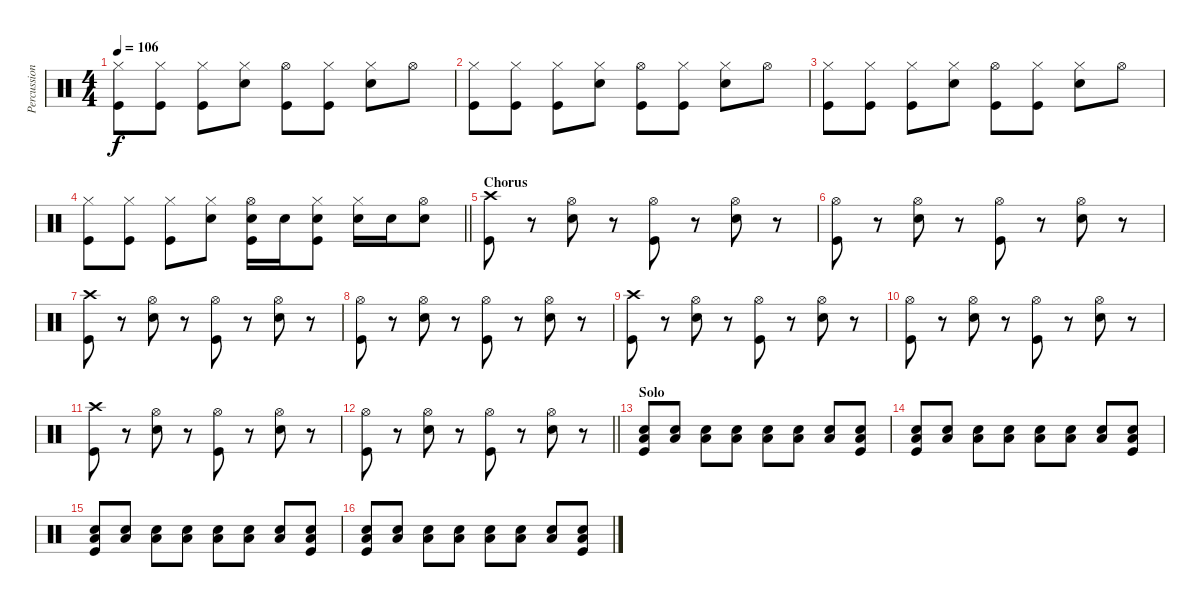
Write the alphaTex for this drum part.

\track ("Percussion" "Percussion") {instrument percussion}
\staff {score}
\articulation defaults
\ts (4 4)
\tempo 106
\clef neutral
\ks c
("Hi-Hat (closed)" "Kick (hit)").8{dy f} ("Hi-Hat (closed)" "Kick (hit)").8 ("Hi-Hat (closed)" "Kick (hit)").8 ("Hi-Hat (closed)" "Snare (hit) 2").8 ("Hi-Hat (open)" "Kick (hit)").8 ("Hi-Hat (closed)" "Kick (hit)").8 ("Hi-Hat (closed)" "Snare (hit) 2").8 "Hi-Hat (open)".8 |
("Hi-Hat (closed)" "Kick (hit)").8 ("Hi-Hat (closed)" "Kick (hit)").8 ("Hi-Hat (closed)" "Kick (hit)").8 ("Hi-Hat (closed)" "Snare (hit) 2").8 ("Hi-Hat (open)" "Kick (hit)").8 ("Hi-Hat (closed)" "Kick (hit)").8 ("Hi-Hat (closed)" "Snare (hit) 2").8 "Hi-Hat (open)".8 |
("Hi-Hat (closed)" "Kick (hit)").8 ("Hi-Hat (closed)" "Kick (hit)").8 ("Hi-Hat (closed)" "Kick (hit)").8 ("Hi-Hat (closed)" "Snare (hit) 2").8 ("Hi-Hat (open)" "Kick (hit)").8 ("Hi-Hat (closed)" "Kick (hit)").8 ("Hi-Hat (closed)" "Snare (hit) 2").8 "Hi-Hat (open)".8 |
\barLineRight lightlight
("Hi-Hat (closed)" "Kick (hit)").8 ("Hi-Hat (closed)" "Kick (hit)").8 ("Hi-Hat (closed)" "Kick (hit)").8 ("Hi-Hat (closed)" "Snare (hit) 2").8 ("Hi-Hat (open)" "Snare (hit) 2" "Kick (hit)").16 "Snare (hit) 2".16 ("Hi-Hat (closed)" "Snare (hit) 2" "Kick (hit)").8 ("Hi-Hat (closed)" "Snare (hit) 2").16 "Snare (hit) 2".16 ("Hi-Hat (open)" "Snare (hit) 2").8 |
\section ("" "Chorus")
("Crash high (hit)" "Kick (hit)").8 r.8 ("Hi-Hat (open)" "Snare (hit) 2").8 r.8 ("Hi-Hat (open)" "Kick (hit)").8 r.8 ("Hi-Hat (open)" "Snare (hit) 2").8 r.8 |
("Hi-Hat (open)" "Kick (hit)").8 r.8 ("Hi-Hat (open)" "Snare (hit) 2").8 r.8 ("Hi-Hat (open)" "Kick (hit)").8 r.8 ("Hi-Hat (open)" "Snare (hit) 2").8 r.8 |
("Crash high (hit)" "Kick (hit)").8 r.8 ("Hi-Hat (open)" "Snare (hit) 2").8 r.8 ("Hi-Hat (open)" "Kick (hit)").8 r.8 ("Hi-Hat (open)" "Snare (hit) 2").8 r.8 |
("Hi-Hat (open)" "Kick (hit)").8 r.8 ("Hi-Hat (open)" "Snare (hit) 2").8 r.8 ("Hi-Hat (open)" "Kick (hit)").8 r.8 ("Hi-Hat (open)" "Snare (hit) 2").8 r.8 |
("Crash high (hit)" "Kick (hit)").8 r.8 ("Hi-Hat (open)" "Snare (hit) 2").8 r.8 ("Hi-Hat (open)" "Kick (hit)").8 r.8 ("Hi-Hat (open)" "Snare (hit) 2").8 r.8 |
("Hi-Hat (open)" "Kick (hit)").8 r.8 ("Hi-Hat (open)" "Snare (hit) 2").8 r.8 ("Hi-Hat (open)" "Kick (hit)").8 r.8 ("Hi-Hat (open)" "Snare (hit) 2").8 r.8 |
("Crash high (hit)" "Kick (hit)").8 r.8 ("Hi-Hat (open)" "Snare (hit) 2").8 r.8 ("Hi-Hat (open)" "Kick (hit)").8 r.8 ("Hi-Hat (open)" "Snare (hit) 2").8 r.8 |
\barLineRight lightlight
("Hi-Hat (open)" "Kick (hit)").8 r.8 ("Hi-Hat (open)" "Snare (hit) 2").8 r.8 ("Hi-Hat (open)" "Kick (hit)").8 r.8 ("Hi-Hat (open)" "Snare (hit) 2").8 r.8 |
\section ("" "Solo")
("Low Tom (hit)" "Snare (hit) 2" "Kick (hit)").8 ("Low Tom (hit)" "Snare (hit) 2").8 ("Low Tom (hit)" "Snare (hit) 2").8 ("Low Tom (hit)" "Snare (hit) 2").8 ("Low Tom (hit)" "Snare (hit) 2").8 ("Low Tom (hit)" "Snare (hit) 2").8 ("Low Tom (hit)" "Snare (hit) 2").8 ("Low Tom (hit)" "Snare (hit) 2" "Kick (hit)").8 |
("Low Tom (hit)" "Snare (hit) 2" "Kick (hit)").8 ("Low Tom (hit)" "Snare (hit) 2").8 ("Low Tom (hit)" "Snare (hit) 2").8 ("Low Tom (hit)" "Snare (hit) 2").8 ("Low Tom (hit)" "Snare (hit) 2").8 ("Low Tom (hit)" "Snare (hit) 2").8 ("Low Tom (hit)" "Snare (hit) 2").8 ("Low Tom (hit)" "Snare (hit) 2" "Kick (hit)").8 |
("Low Tom (hit)" "Snare (hit) 2" "Kick (hit)").8 ("Low Tom (hit)" "Snare (hit) 2").8 ("Low Tom (hit)" "Snare (hit) 2").8 ("Low Tom (hit)" "Snare (hit) 2").8 ("Low Tom (hit)" "Snare (hit) 2").8 ("Low Tom (hit)" "Snare (hit) 2").8 ("Low Tom (hit)" "Snare (hit) 2").8 ("Low Tom (hit)" "Snare (hit) 2" "Kick (hit)").8 |
("Low Tom (hit)" "Snare (hit) 2" "Kick (hit)").8 ("Low Tom (hit)" "Snare (hit) 2").8 ("Low Tom (hit)" "Snare (hit) 2").8 ("Low Tom (hit)" "Snare (hit) 2").8 ("Low Tom (hit)" "Snare (hit) 2").8 ("Low Tom (hit)" "Snare (hit) 2").8 ("Low Tom (hit)" "Snare (hit) 2").8 ("Low Tom (hit)" "Snare (hit) 2" "Kick (hit)").8
